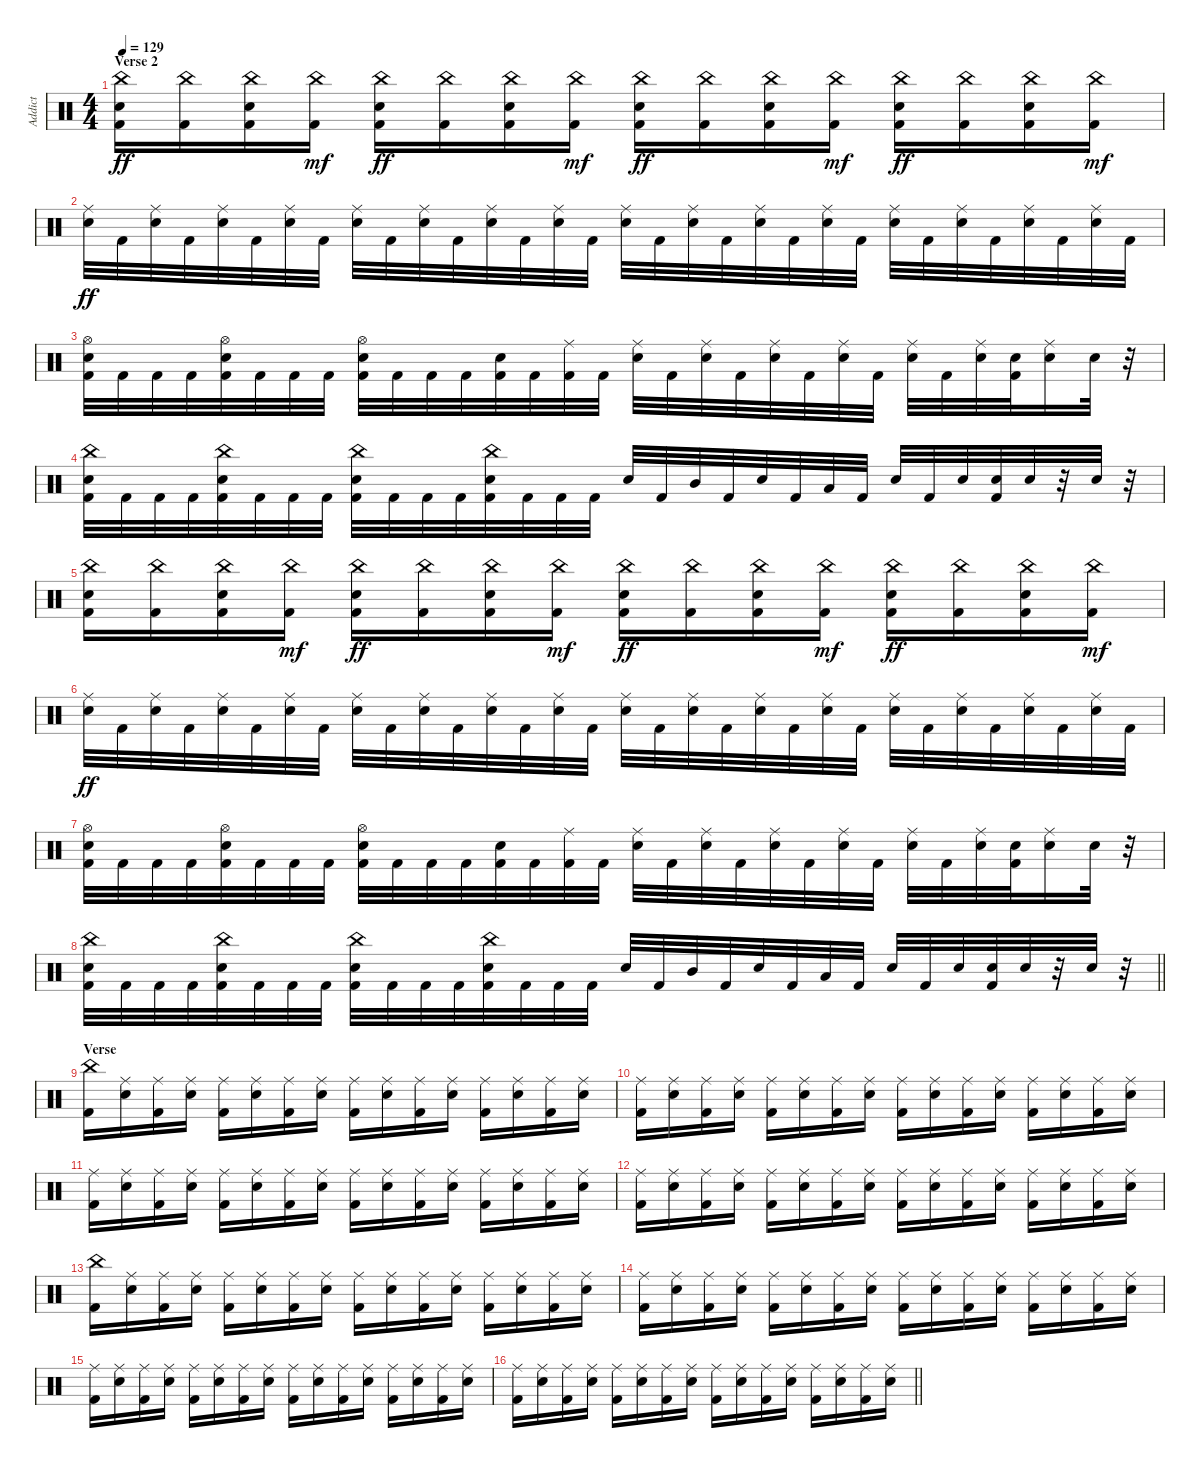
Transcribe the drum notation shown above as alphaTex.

\track ("Addict" "Addict") {instrument percussion}
\staff {score}
\articulation defaults
\ts (4 4)
\section ("" "Verse 2")
\tempo 129
\clef neutral
\ks c
("Kick (hit) 2" "Snare (hit) 2" "China (hit)").16{dy ff} ("Kick (hit) 2" "China (hit)").16 ("Kick (hit) 2" "Snare (hit) 2" "China (hit)").16 ("Kick (hit) 2" "China (hit)").16{dy mf} ("Kick (hit) 2" "Snare (hit) 2" "China (hit)").16{dy ff} ("Kick (hit) 2" "China (hit)").16 ("Kick (hit) 2" "Snare (hit) 2" "China (hit)").16 ("Kick (hit) 2" "China (hit)").16{dy mf} ("Kick (hit) 2" "Snare (hit) 2" "China (hit)").16{dy ff} ("Kick (hit) 2" "China (hit)").16 ("Kick (hit) 2" "Snare (hit) 2" "China (hit)").16 ("Kick (hit) 2" "China (hit)").16{dy mf} ("Kick (hit) 2" "Snare (hit) 2" "China (hit)").16{dy ff} ("Kick (hit) 2" "China (hit)").16 ("Kick (hit) 2" "Snare (hit) 2" "China (hit)").16 ("Kick (hit) 2" "China (hit)").16{dy mf} |
("Snare (hit) 2" "Ride (middle)").32{dy ff} "Kick (hit) 2".32 ("Snare (hit) 2" "Ride (middle)").32 "Kick (hit) 2".32 ("Snare (hit) 2" "Ride (middle)").32 "Kick (hit) 2".32 ("Snare (hit) 2" "Ride (middle)").32 "Kick (hit) 2".32 ("Snare (hit) 2" "Ride (middle)").32 "Kick (hit) 2".32 ("Snare (hit) 2" "Ride (middle)").32 "Kick (hit) 2".32 ("Snare (hit) 2" "Ride (middle)").32 "Kick (hit) 2".32 ("Snare (hit) 2" "Ride (middle)").32 "Kick (hit) 2".32 ("Snare (hit) 2" "Ride (middle)").32 "Kick (hit) 2".32 ("Snare (hit) 2" "Ride (middle)").32 "Kick (hit) 2".32 ("Snare (hit) 2" "Ride (middle)").32 "Kick (hit) 2".32 ("Snare (hit) 2" "Ride (middle)").32 "Kick (hit) 2".32 ("Snare (hit) 2" "Ride (middle)").32 "Kick (hit) 2".32 ("Snare (hit) 2" "Ride (middle)").32 "Kick (hit) 2".32 ("Snare (hit) 2" "Ride (middle)").32 "Kick (hit) 2".32 ("Snare (hit) 2" "Ride (middle)").32 "Kick (hit) 2".32 |
("Kick (hit) 2" "Snare (hit) 2" "Hi-Hat (open)").32 "Kick (hit) 2".32 "Kick (hit) 2".32 "Kick (hit) 2".32 ("Kick (hit) 2" "Snare (hit) 2" "Hi-Hat (open)").32 "Kick (hit) 2".32 "Kick (hit) 2".32 "Kick (hit) 2".32 ("Kick (hit) 2" "Snare (hit) 2" "Hi-Hat (open)").32 "Kick (hit) 2".32 "Kick (hit) 2".32 "Kick (hit) 2".32 ("Kick (hit) 2" "Snare (hit) 2").32 "Kick (hit) 2".32 ("Kick (hit) 2" "Ride (middle)").32 "Kick (hit) 2".32 ("Snare (hit) 2" "Ride (middle)").32 "Kick (hit) 2".32 ("Snare (hit) 2" "Ride (middle)").32 "Kick (hit) 2".32 ("Snare (hit) 2" "Ride (middle)").32 "Kick (hit) 2".32 ("Snare (hit) 2" "Ride (middle)").32 "Kick (hit) 2".32 ("Snare (hit) 2" "Ride (middle)").32 "Kick (hit) 2".32 ("Snare (hit) 2" "Ride (middle)").32 ("Kick (hit) 2" "Snare (hit) 2").32 ("Snare (hit) 2" "Ride (middle)").16 "Snare (hit) 2".32 r.32 |
("Kick (hit) 2" "Snare (hit) 2" "China (hit)").32 "Kick (hit) 2".32 "Kick (hit) 2".32 "Kick (hit) 2".32 ("Kick (hit) 2" "Snare (hit) 2" "China (hit)").32 "Kick (hit) 2".32 "Kick (hit) 2".32 "Kick (hit) 2".32 ("Kick (hit) 2" "Snare (hit) 2" "China (hit)").32 "Kick (hit) 2".32 "Kick (hit) 2".32 "Kick (hit) 2".32 ("Kick (hit) 2" "Snare (hit) 2" "China (hit)").32 "Kick (hit) 2".32 "Kick (hit) 2".32 "Kick (hit) 2".32 "Snare (hit) 2".32 "Kick (hit) 2".32 "Mid Tom (hit)".32 "Kick (hit) 2".32 "Snare (hit) 2".32 "Kick (hit) 2".32 "Low Tom (hit)".32 "Kick (hit) 2".32 "Snare (hit) 2".32 "Kick (hit) 2".32 "Snare (hit) 2".32 ("Kick (hit) 2" "Snare (hit) 2").32 "Snare (hit) 2".32 r.32 "Snare (hit) 2".32 r.32 |
("Kick (hit) 2" "Snare (hit) 2" "China (hit)").16 ("Kick (hit) 2" "China (hit)").16 ("Kick (hit) 2" "Snare (hit) 2" "China (hit)").16 ("Kick (hit) 2" "China (hit)").16{dy mf} ("Kick (hit) 2" "Snare (hit) 2" "China (hit)").16{dy ff} ("Kick (hit) 2" "China (hit)").16 ("Kick (hit) 2" "Snare (hit) 2" "China (hit)").16 ("Kick (hit) 2" "China (hit)").16{dy mf} ("Kick (hit) 2" "Snare (hit) 2" "China (hit)").16{dy ff} ("Kick (hit) 2" "China (hit)").16 ("Kick (hit) 2" "Snare (hit) 2" "China (hit)").16 ("Kick (hit) 2" "China (hit)").16{dy mf} ("Kick (hit) 2" "Snare (hit) 2" "China (hit)").16{dy ff} ("Kick (hit) 2" "China (hit)").16 ("Kick (hit) 2" "Snare (hit) 2" "China (hit)").16 ("Kick (hit) 2" "China (hit)").16{dy mf} |
("Snare (hit) 2" "Ride (middle)").32{dy ff} "Kick (hit) 2".32 ("Snare (hit) 2" "Ride (middle)").32 "Kick (hit) 2".32 ("Snare (hit) 2" "Ride (middle)").32 "Kick (hit) 2".32 ("Snare (hit) 2" "Ride (middle)").32 "Kick (hit) 2".32 ("Snare (hit) 2" "Ride (middle)").32 "Kick (hit) 2".32 ("Snare (hit) 2" "Ride (middle)").32 "Kick (hit) 2".32 ("Snare (hit) 2" "Ride (middle)").32 "Kick (hit) 2".32 ("Snare (hit) 2" "Ride (middle)").32 "Kick (hit) 2".32 ("Snare (hit) 2" "Ride (middle)").32 "Kick (hit) 2".32 ("Snare (hit) 2" "Ride (middle)").32 "Kick (hit) 2".32 ("Snare (hit) 2" "Ride (middle)").32 "Kick (hit) 2".32 ("Snare (hit) 2" "Ride (middle)").32 "Kick (hit) 2".32 ("Snare (hit) 2" "Ride (middle)").32 "Kick (hit) 2".32 ("Snare (hit) 2" "Ride (middle)").32 "Kick (hit) 2".32 ("Snare (hit) 2" "Ride (middle)").32 "Kick (hit) 2".32 ("Snare (hit) 2" "Ride (middle)").32 "Kick (hit) 2".32 |
("Kick (hit) 2" "Snare (hit) 2" "Hi-Hat (open)").32 "Kick (hit) 2".32 "Kick (hit) 2".32 "Kick (hit) 2".32 ("Kick (hit) 2" "Snare (hit) 2" "Hi-Hat (open)").32 "Kick (hit) 2".32 "Kick (hit) 2".32 "Kick (hit) 2".32 ("Kick (hit) 2" "Snare (hit) 2" "Hi-Hat (open)").32 "Kick (hit) 2".32 "Kick (hit) 2".32 "Kick (hit) 2".32 ("Kick (hit) 2" "Snare (hit) 2").32 "Kick (hit) 2".32 ("Kick (hit) 2" "Ride (middle)").32 "Kick (hit) 2".32 ("Snare (hit) 2" "Ride (middle)").32 "Kick (hit) 2".32 ("Snare (hit) 2" "Ride (middle)").32 "Kick (hit) 2".32 ("Snare (hit) 2" "Ride (middle)").32 "Kick (hit) 2".32 ("Snare (hit) 2" "Ride (middle)").32 "Kick (hit) 2".32 ("Snare (hit) 2" "Ride (middle)").32 "Kick (hit) 2".32 ("Snare (hit) 2" "Ride (middle)").32 ("Kick (hit) 2" "Snare (hit) 2").32 ("Snare (hit) 2" "Ride (middle)").16 "Snare (hit) 2".32 r.32 |
\barLineRight lightlight
("Kick (hit) 2" "Snare (hit) 2" "China (hit)").32 "Kick (hit) 2".32 "Kick (hit) 2".32 "Kick (hit) 2".32 ("Kick (hit) 2" "Snare (hit) 2" "China (hit)").32 "Kick (hit) 2".32 "Kick (hit) 2".32 "Kick (hit) 2".32 ("Kick (hit) 2" "Snare (hit) 2" "China (hit)").32 "Kick (hit) 2".32 "Kick (hit) 2".32 "Kick (hit) 2".32 ("Kick (hit) 2" "Snare (hit) 2" "China (hit)").32 "Kick (hit) 2".32 "Kick (hit) 2".32 "Kick (hit) 2".32 "Snare (hit) 2".32 "Kick (hit) 2".32 "Mid Tom (hit)".32 "Kick (hit) 2".32 "Snare (hit) 2".32 "Kick (hit) 2".32 "Low Tom (hit)".32 "Kick (hit) 2".32 "Snare (hit) 2".32 "Kick (hit) 2".32 "Snare (hit) 2".32 ("Kick (hit) 2" "Snare (hit) 2").32 "Snare (hit) 2".32 r.32 "Snare (hit) 2".32 r.32 |
\section ("" "Verse")
("Kick (hit) 2" "China (hit)").16 ("Snare (hit) 2" "Ride (middle)").16 ("Kick (hit) 2" "Ride (middle)").16 ("Snare (hit) 2" "Ride (middle)").16 ("Kick (hit) 2" "Ride (middle)").16 ("Snare (hit) 2" "Ride (middle)").16 ("Kick (hit) 2" "Ride (middle)").16 ("Snare (hit) 2" "Ride (middle)").16 ("Kick (hit) 2" "Ride (middle)").16 ("Snare (hit) 2" "Ride (middle)").16 ("Kick (hit) 2" "Ride (middle)").16 ("Snare (hit) 2" "Ride (middle)").16 ("Kick (hit) 2" "Ride (middle)").16 ("Snare (hit) 2" "Ride (middle)").16 ("Kick (hit) 2" "Ride (middle)").16 ("Snare (hit) 2" "Ride (middle)").16 |
("Kick (hit) 2" "Ride (middle)").16 ("Snare (hit) 2" "Ride (middle)").16 ("Kick (hit) 2" "Ride (middle)").16 ("Snare (hit) 2" "Ride (middle)").16 ("Kick (hit) 2" "Ride (middle)").16 ("Snare (hit) 2" "Ride (middle)").16 ("Kick (hit) 2" "Ride (middle)").16 ("Snare (hit) 2" "Ride (middle)").16 ("Kick (hit) 2" "Ride (middle)").16 ("Snare (hit) 2" "Ride (middle)").16 ("Kick (hit) 2" "Ride (middle)").16 ("Snare (hit) 2" "Ride (middle)").16 ("Kick (hit) 2" "Ride (middle)").16 ("Snare (hit) 2" "Ride (middle)").16 ("Kick (hit) 2" "Ride (middle)").16 ("Snare (hit) 2" "Ride (middle)").16 |
("Kick (hit) 2" "Ride (middle)").16 ("Snare (hit) 2" "Ride (middle)").16 ("Kick (hit) 2" "Ride (middle)").16 ("Snare (hit) 2" "Ride (middle)").16 ("Kick (hit) 2" "Ride (middle)").16 ("Snare (hit) 2" "Ride (middle)").16 ("Kick (hit) 2" "Ride (middle)").16 ("Snare (hit) 2" "Ride (middle)").16 ("Kick (hit) 2" "Ride (middle)").16 ("Snare (hit) 2" "Ride (middle)").16 ("Kick (hit) 2" "Ride (middle)").16 ("Snare (hit) 2" "Ride (middle)").16 ("Kick (hit) 2" "Ride (middle)").16 ("Snare (hit) 2" "Ride (middle)").16 ("Kick (hit) 2" "Ride (middle)").16 ("Snare (hit) 2" "Ride (middle)").16 |
("Kick (hit) 2" "Ride (middle)").16 ("Snare (hit) 2" "Ride (middle)").16 ("Kick (hit) 2" "Ride (middle)").16 ("Snare (hit) 2" "Ride (middle)").16 ("Kick (hit) 2" "Ride (middle)").16 ("Snare (hit) 2" "Ride (middle)").16 ("Kick (hit) 2" "Ride (middle)").16 ("Snare (hit) 2" "Ride (middle)").16 ("Kick (hit) 2" "Ride (middle)").16 ("Snare (hit) 2" "Ride (middle)").16 ("Kick (hit) 2" "Ride (middle)").16 ("Snare (hit) 2" "Ride (middle)").16 ("Kick (hit) 2" "Ride (middle)").16 ("Snare (hit) 2" "Ride (middle)").16 ("Kick (hit) 2" "Ride (middle)").16 ("Snare (hit) 2" "Ride (middle)").16 |
("Kick (hit) 2" "China (hit)").16 ("Snare (hit) 2" "Ride (middle)").16 ("Kick (hit) 2" "Ride (middle)").16 ("Snare (hit) 2" "Ride (middle)").16 ("Kick (hit) 2" "Ride (middle)").16 ("Snare (hit) 2" "Ride (middle)").16 ("Kick (hit) 2" "Ride (middle)").16 ("Snare (hit) 2" "Ride (middle)").16 ("Kick (hit) 2" "Ride (middle)").16 ("Snare (hit) 2" "Ride (middle)").16 ("Kick (hit) 2" "Ride (middle)").16 ("Snare (hit) 2" "Ride (middle)").16 ("Kick (hit) 2" "Ride (middle)").16 ("Snare (hit) 2" "Ride (middle)").16 ("Kick (hit) 2" "Ride (middle)").16 ("Snare (hit) 2" "Ride (middle)").16 |
("Kick (hit) 2" "Ride (middle)").16 ("Snare (hit) 2" "Ride (middle)").16 ("Kick (hit) 2" "Ride (middle)").16 ("Snare (hit) 2" "Ride (middle)").16 ("Kick (hit) 2" "Ride (middle)").16 ("Snare (hit) 2" "Ride (middle)").16 ("Kick (hit) 2" "Ride (middle)").16 ("Snare (hit) 2" "Ride (middle)").16 ("Kick (hit) 2" "Ride (middle)").16 ("Snare (hit) 2" "Ride (middle)").16 ("Kick (hit) 2" "Ride (middle)").16 ("Snare (hit) 2" "Ride (middle)").16 ("Kick (hit) 2" "Ride (middle)").16 ("Snare (hit) 2" "Ride (middle)").16 ("Kick (hit) 2" "Ride (middle)").16 ("Snare (hit) 2" "Ride (middle)").16 |
("Kick (hit) 2" "Ride (middle)").16 ("Snare (hit) 2" "Ride (middle)").16 ("Kick (hit) 2" "Ride (middle)").16 ("Snare (hit) 2" "Ride (middle)").16 ("Kick (hit) 2" "Ride (middle)").16 ("Snare (hit) 2" "Ride (middle)").16 ("Kick (hit) 2" "Ride (middle)").16 ("Snare (hit) 2" "Ride (middle)").16 ("Kick (hit) 2" "Ride (middle)").16 ("Snare (hit) 2" "Ride (middle)").16 ("Kick (hit) 2" "Ride (middle)").16 ("Snare (hit) 2" "Ride (middle)").16 ("Kick (hit) 2" "Ride (middle)").16 ("Snare (hit) 2" "Ride (middle)").16 ("Kick (hit) 2" "Ride (middle)").16 ("Snare (hit) 2" "Ride (middle)").16 |
\barLineRight lightlight
("Kick (hit) 2" "Ride (middle)").16 ("Snare (hit) 2" "Ride (middle)").16 ("Kick (hit) 2" "Ride (middle)").16 ("Snare (hit) 2" "Ride (middle)").16 ("Kick (hit) 2" "Ride (middle)").16 ("Snare (hit) 2" "Ride (middle)").16 ("Kick (hit) 2" "Ride (middle)").16 ("Snare (hit) 2" "Ride (middle)").16 ("Kick (hit) 2" "Ride (middle)").16 ("Snare (hit) 2" "Ride (middle)").16 ("Kick (hit) 2" "Ride (middle)").16 ("Snare (hit) 2" "Ride (middle)").16 ("Kick (hit) 2" "Ride (middle)").16 ("Snare (hit) 2" "Ride (middle)").16 ("Kick (hit) 2" "Ride (middle)").16 ("Snare (hit) 2" "Ride (middle)").16
